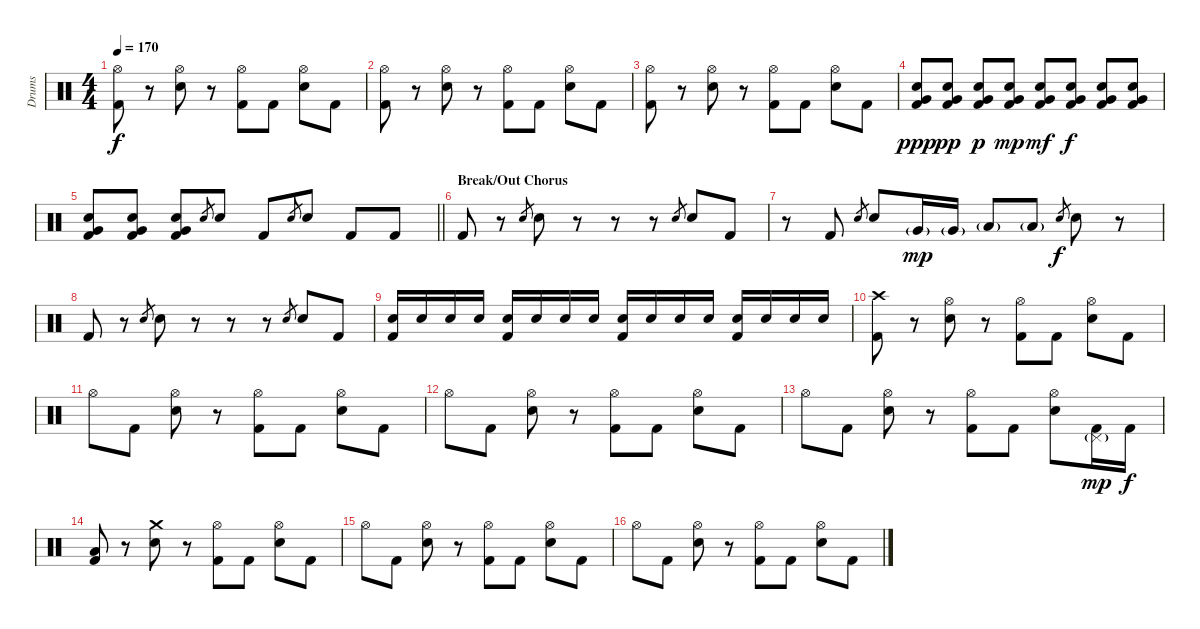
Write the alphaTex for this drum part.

\track ("Drums" "Drums") {instrument percussion}
\staff {score}
\articulation defaults
\ts (4 4)
\tempo 170
\clef neutral
\ks c
("Hi-Hat (open)" "Kick (hit) 2").8{dy f} r.8 ("Hi-Hat (open)" "Electric Snare (hit)").8 r.8 ("Hi-Hat (open)" "Kick (hit) 2").8 "Kick (hit) 2".8 ("Hi-Hat (open)" "Electric Snare (hit)").8 "Kick (hit) 2".8 |
("Hi-Hat (open)" "Kick (hit) 2").8 r.8 ("Hi-Hat (open)" "Electric Snare (hit)").8 r.8 ("Hi-Hat (open)" "Kick (hit) 2").8 "Kick (hit) 2".8 ("Hi-Hat (open)" "Electric Snare (hit)").8 "Kick (hit) 2".8 |
("Hi-Hat (open)" "Kick (hit) 2").8 r.8 ("Hi-Hat (open)" "Electric Snare (hit)").8 r.8 ("Hi-Hat (open)" "Kick (hit) 2").8 "Kick (hit) 2".8 ("Hi-Hat (open)" "Electric Snare (hit)").8 "Kick (hit) 2".8 |
("Very Low Tom (hit)" "Electric Snare (hit)" "Kick (hit) 2").8{dy ppp} ("Very Low Tom (hit)" "Electric Snare (hit)" "Kick (hit) 2").8{dy pp} ("Very Low Tom (hit)" "Electric Snare (hit)" "Kick (hit) 2").8{dy p} ("Very Low Tom (hit)" "Electric Snare (hit)" "Kick (hit) 2").8{dy mp} ("Very Low Tom (hit)" "Electric Snare (hit)" "Kick (hit) 2").8{dy mf} ("Very Low Tom (hit)" "Electric Snare (hit)" "Kick (hit) 2").8{dy f} ("Very Low Tom (hit)" "Electric Snare (hit)" "Kick (hit) 2").8 ("Very Low Tom (hit)" "Electric Snare (hit)" "Kick (hit) 2").8 |
\barLineRight lightlight
("Very Low Tom (hit)" "Electric Snare (hit)" "Kick (hit) 2").8 ("Very Low Tom (hit)" "Electric Snare (hit)" "Kick (hit) 2").8 ("Very Low Tom (hit)" "Electric Snare (hit)" "Kick (hit) 2").8 "Electric Snare (hit)".8{gr} "Electric Snare (hit)".8 "Kick (hit) 2".8 "Electric Snare (hit)".8{gr} "Electric Snare (hit)".8 "Kick (hit) 2".8 "Kick (hit) 2".8 |
\section ("" "Break/Out Chorus")
"Kick (hit) 2".8 r.8 "Electric Snare (hit)".8{gr} "Electric Snare (hit)".8 r.8 r.8 r.8 "Electric Snare (hit)".8{gr} "Electric Snare (hit)".8 "Kick (hit) 2".8 |
r.8 "Kick (hit) 2".8 "Electric Snare (hit)".8{gr} "Electric Snare (hit)".8 "Very Low Tom (hit)"{g}.16{dy mp} "Very Low Tom (hit)"{g}.16 "Low Floor Tom (hit)"{g}.8 "Low Floor Tom (hit)"{g}.8 "Electric Snare (hit)".8{gr dy f} "Electric Snare (hit)".8 r.8 |
"Kick (hit) 2".8 r.8 "Electric Snare (hit)".8{gr} "Electric Snare (hit)".8 r.8 r.8 r.8 "Electric Snare (hit)".8{gr} "Electric Snare (hit)".8 "Kick (hit) 2".8 |
("Electric Snare (hit)" "Kick (hit) 2").16 "Electric Snare (hit)".16 "Electric Snare (hit)".16 "Electric Snare (hit)".16 ("Electric Snare (hit)" "Kick (hit) 2").16 "Electric Snare (hit)".16 "Electric Snare (hit)".16 "Electric Snare (hit)".16 ("Electric Snare (hit)" "Kick (hit) 2").16 "Electric Snare (hit)".16 "Electric Snare (hit)".16 "Electric Snare (hit)".16 ("Electric Snare (hit)" "Kick (hit) 2").16 "Electric Snare (hit)".16 "Electric Snare (hit)".16 "Electric Snare (hit)".16 |
("Crash high (hit)" "Kick (hit) 2").8 r.8 ("Hi-Hat (open)" "Electric Snare (hit)").8 r.8 ("Hi-Hat (open)" "Kick (hit) 2").8 "Kick (hit) 2".8 ("Hi-Hat (open)" "Electric Snare (hit)").8 "Kick (hit) 2".8 |
"Hi-Hat (open)".8 "Kick (hit) 2".8 ("Hi-Hat (open)" "Electric Snare (hit)").8 r.8 ("Hi-Hat (open)" "Kick (hit) 2").8 "Kick (hit) 2".8 ("Hi-Hat (open)" "Electric Snare (hit)").8 "Kick (hit) 2".8 |
"Hi-Hat (open)".8 "Kick (hit) 2".8 ("Hi-Hat (open)" "Electric Snare (hit)").8 r.8 ("Hi-Hat (open)" "Kick (hit) 2").8 "Kick (hit) 2".8 ("Hi-Hat (open)" "Electric Snare (hit)").8 "Kick (hit) 2".8 |
"Hi-Hat (open)".8 "Kick (hit) 2".8 ("Hi-Hat (open)" "Electric Snare (hit)").8 r.8 ("Hi-Hat (open)" "Kick (hit) 2").8 "Kick (hit) 2".8 ("Hi-Hat (open)" "Electric Snare (hit)").8 ("Pedal Hi-Hat (hit)"{g} "Kick (hit) 2").16{dy mp} "Kick (hit) 2".16{dy f} |
("Low Floor Tom (hit)" "Kick (hit) 2").8 r.8 ("Crash medium (hit)" "Electric Snare (hit)").8 r.8 ("Hi-Hat (open)" "Kick (hit) 2").8 "Kick (hit) 2".8 ("Hi-Hat (open)" "Electric Snare (hit)").8 "Kick (hit) 2".8 |
"Hi-Hat (open)".8 "Kick (hit) 2".8 ("Hi-Hat (open)" "Electric Snare (hit)").8 r.8 ("Hi-Hat (open)" "Kick (hit) 2").8 "Kick (hit) 2".8 ("Hi-Hat (open)" "Electric Snare (hit)").8 "Kick (hit) 2".8 |
"Hi-Hat (open)".8 "Kick (hit) 2".8 ("Hi-Hat (open)" "Electric Snare (hit)").8 r.8 ("Hi-Hat (open)" "Kick (hit) 2").8 "Kick (hit) 2".8 ("Hi-Hat (open)" "Electric Snare (hit)").8 "Kick (hit) 2".8
